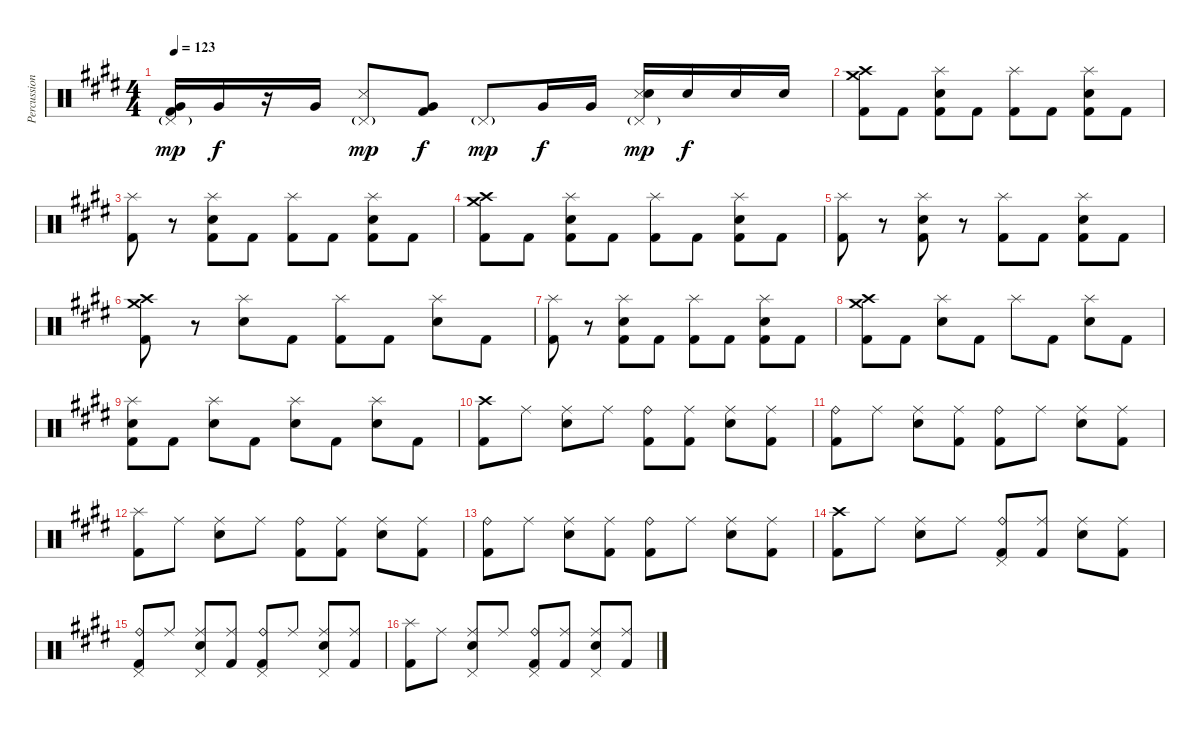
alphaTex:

\track ("Percussioni" "Percussion") {instrument percussion}
\staff {score}
\articulation defaults
\ts (4 4)
\tempo 123
\clef neutral
\ks e
("Pedal Hi-Hat (hit)"{g} "Very Low Tom (hit)" "Kick (hit) 2").16{dy mp} "Very Low Tom (hit)".16{dy f} r.16 "Very Low Tom (hit)".16 ("Pedal Hi-Hat (hit)"{g} "Metronome (hit)").8{dy mp} ("Very Low Tom (hit)" "Kick (hit) 2").8{dy f} "Pedal Hi-Hat (hit)"{g}.8{dy mp} "Very Low Tom (hit)".16{dy f} "Very Low Tom (hit)".16 ("Pedal Hi-Hat (hit)"{g} "Metronome (hit)" "Electric Snare (hit)").16{dy mp} "Electric Snare (hit)".16{dy f} "Electric Snare (hit)".16 "Electric Snare (hit)".16 |
("Crash high (hit)" "Crash medium (hit)" "Kick (hit) 2").8 "Kick (hit) 2".8 ("Splash (hit)" "Electric Snare (hit)" "Kick (hit) 2").8 "Kick (hit) 2".8 ("Splash (hit)" "Kick (hit) 2").8 "Kick (hit) 2".8 ("Splash (hit)" "Electric Snare (hit)" "Kick (hit) 2").8 "Kick (hit) 2".8 |
("Splash (hit)" "Kick (hit) 2").8 r.8 ("Splash (hit)" "Electric Snare (hit)" "Kick (hit) 2").8 "Kick (hit) 2".8 ("Splash (hit)" "Kick (hit) 2").8 "Kick (hit) 2".8 ("Splash (hit)" "Electric Snare (hit)" "Kick (hit) 2").8 "Kick (hit) 2".8 |
("Crash high (hit)" "Crash medium (hit)" "Kick (hit) 2").8 "Kick (hit) 2".8 ("Splash (hit)" "Electric Snare (hit)" "Kick (hit) 2").8 "Kick (hit) 2".8 ("Splash (hit)" "Kick (hit) 2").8 "Kick (hit) 2".8 ("Splash (hit)" "Electric Snare (hit)" "Kick (hit) 2").8 "Kick (hit) 2".8 |
("Splash (hit)" "Kick (hit) 2").8 r.8 ("Splash (hit)" "Electric Snare (hit)" "Kick (hit) 2").8 r.8 ("Splash (hit)" "Kick (hit) 2").8 "Kick (hit) 2".8 ("Splash (hit)" "Electric Snare (hit)" "Kick (hit) 2").8 "Kick (hit) 2".8 |
("Crash high (hit)" "Crash medium (hit)" "Kick (hit) 2").8 r.8 ("Splash (hit)" "Electric Snare (hit)").8 "Kick (hit) 2".8 ("Splash (hit)" "Kick (hit) 2").8 "Kick (hit) 2".8 ("Splash (hit)" "Electric Snare (hit)").8 "Kick (hit) 2".8 |
("Splash (hit)" "Kick (hit) 2").8 r.8 ("Splash (hit)" "Electric Snare (hit)" "Kick (hit) 2").8 "Kick (hit) 2".8 ("Splash (hit)" "Kick (hit) 2").8 "Kick (hit) 2".8 ("Splash (hit)" "Electric Snare (hit)" "Kick (hit) 2").8 "Kick (hit) 2".8 |
("Crash high (hit)" "Crash medium (hit)" "Kick (hit) 2").8 "Kick (hit) 2".8 ("Splash (hit)" "Electric Snare (hit)").8 "Kick (hit) 2".8 "Splash (hit)".8 "Kick (hit) 2".8 ("Splash (hit)" "Electric Snare (hit)").8 "Kick (hit) 2".8 |
("Splash (hit)" "Electric Snare (hit)" "Kick (hit) 2").8 "Kick (hit) 2".8 ("Splash (hit)" "Electric Snare (hit)").8 "Kick (hit) 2".8 ("Splash (hit)" "Electric Snare (hit)").8 "Kick (hit) 2".8 ("Splash (hit)" "Electric Snare (hit)").8 "Kick (hit) 2".8 |
("Crash high (hit)" "Kick (hit) 2").8 "Ride (middle)".8 ("Ride (middle)" "Electric Snare (hit)").8 "Ride (middle)".8 ("Ride (bell)" "Kick (hit) 2").8 ("Ride (middle)" "Kick (hit) 2").8 ("Ride (middle)" "Electric Snare (hit)").8 ("Ride (middle)" "Kick (hit) 2").8 |
("Ride (bell)" "Kick (hit) 2").8 "Ride (middle)".8 ("Ride (middle)" "Electric Snare (hit)").8 ("Ride (middle)" "Kick (hit) 2").8 ("Ride (bell)" "Kick (hit) 2").8 "Ride (middle)".8 ("Ride (middle)" "Electric Snare (hit)").8 ("Ride (middle)" "Kick (hit) 2").8 |
("Splash (hit)" "Kick (hit) 2").8 "Ride (middle)".8 ("Ride (middle)" "Electric Snare (hit)").8 "Ride (middle)".8 ("Ride (bell)" "Kick (hit) 2").8 ("Ride (middle)" "Kick (hit) 2").8 ("Ride (middle)" "Electric Snare (hit)").8 ("Ride (middle)" "Kick (hit) 2").8 |
("Ride (bell)" "Kick (hit) 2").8 "Ride (middle)".8 ("Ride (middle)" "Electric Snare (hit)").8 ("Ride (middle)" "Kick (hit) 2").8 ("Ride (bell)" "Kick (hit) 2").8 "Ride (middle)".8 ("Ride (middle)" "Electric Snare (hit)").8 ("Ride (middle)" "Kick (hit) 2").8 |
("Crash high (hit)" "Kick (hit) 2").8 "Ride (middle)".8 ("Ride (middle)" "Electric Snare (hit)").8 "Ride (middle)".8 ("Ride (bell)" "Pedal Hi-Hat (hit)" "Kick (hit) 2").8 ("Ride (middle)" "Kick (hit) 2").8 ("Ride (middle)" "Electric Snare (hit)").8 ("Ride (middle)" "Kick (hit) 2").8 |
("Ride (bell)" "Pedal Hi-Hat (hit)" "Kick (hit) 2").8 "Ride (middle)".8 ("Pedal Hi-Hat (hit)" "Ride (middle)" "Electric Snare (hit)").8 ("Ride (middle)" "Kick (hit) 2").8 ("Pedal Hi-Hat (hit)" "Ride (bell)" "Kick (hit) 2").8 "Ride (middle)".8 ("Pedal Hi-Hat (hit)" "Ride (middle)" "Electric Snare (hit)").8 ("Ride (middle)" "Kick (hit) 2").8 |
("Splash (hit)" "Kick (hit) 2").8 "Ride (middle)".8 ("Pedal Hi-Hat (hit)" "Ride (middle)" "Electric Snare (hit)").8 "Ride (middle)".8 ("Pedal Hi-Hat (hit)" "Ride (bell)" "Kick (hit) 2").8 ("Ride (middle)" "Kick (hit) 2").8 ("Pedal Hi-Hat (hit)" "Ride (middle)" "Electric Snare (hit)").8 ("Ride (middle)" "Kick (hit) 2").8
